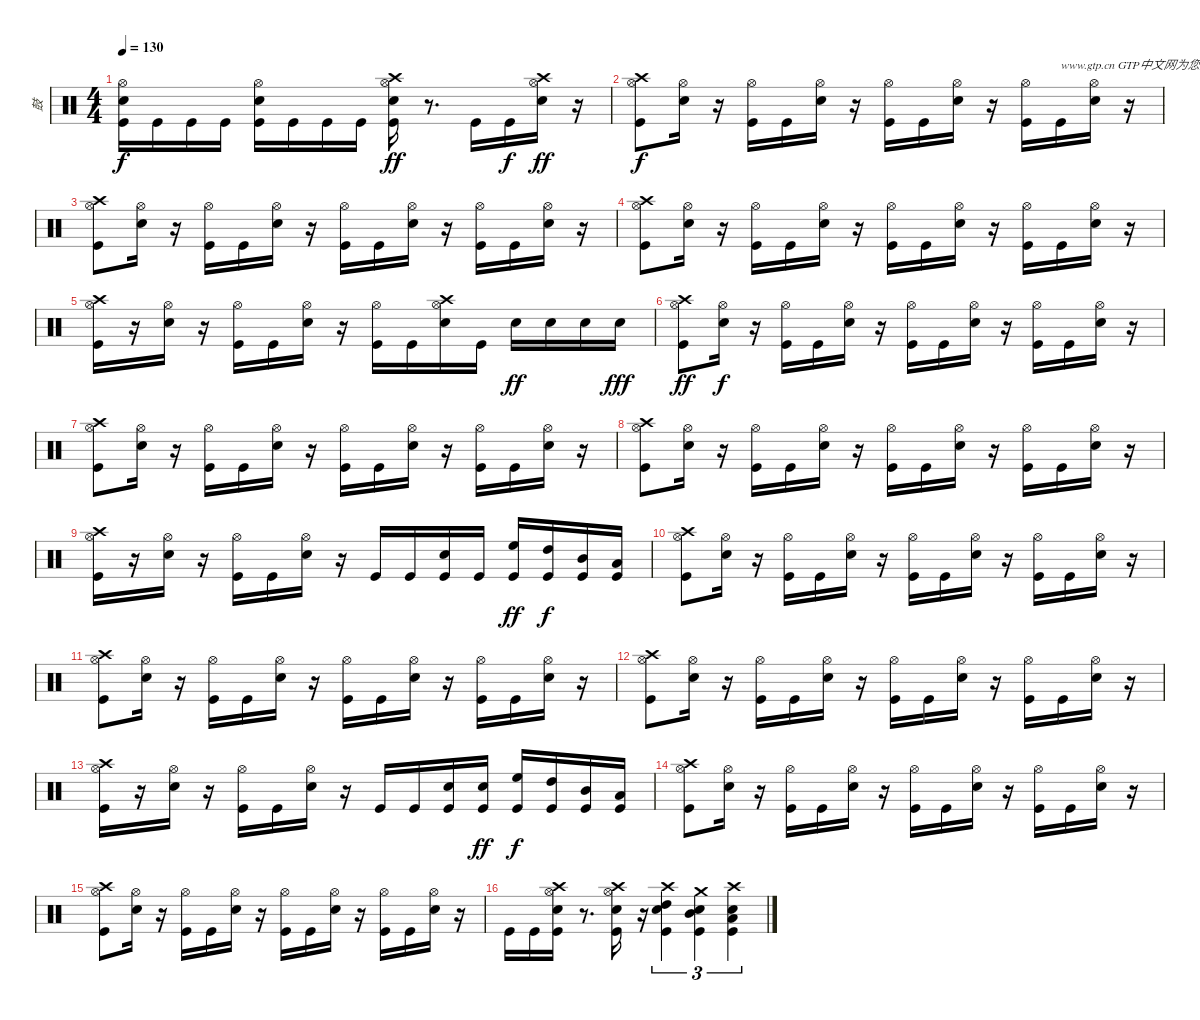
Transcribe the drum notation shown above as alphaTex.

\track ("鼓" "鼓") {instrument percussion}
\staff {score}
\articulation defaults
\ts (4 4)
\tempo 130
\clef neutral
\ks c
("Hi-Hat (open)" "Snare (hit) 2" "Kick (hit)").16{dy f} "Kick (hit)".16 "Kick (hit)".16 "Kick (hit)".16 ("Hi-Hat (open)" "Snare (hit) 2" "Kick (hit)").16 "Kick (hit)".16 "Kick (hit)".16 "Kick (hit)".16 ("Crash high (hit)" "Hi-Hat (open)" "Snare (hit) 2" "Kick (hit)").16{dy ff} r.8{d} "Kick (hit)".16 "Kick (hit)".16{dy f} ("Crash high (hit)" "Hi-Hat (open)" "Snare (hit) 2").16{dy ff} r.16 |
("Crash high (hit)" "Hi-Hat (open)" "Kick (hit)").8{dy f} ("Hi-Hat (open)" "Snare (hit) 2").16 r.16 ("Hi-Hat (open)" "Kick (hit)").16 "Kick (hit)".16 ("Hi-Hat (open)" "Snare (hit) 2").16 r.16 ("Hi-Hat (open)" "Kick (hit)").16 "Kick (hit)".16 ("Hi-Hat (open)" "Snare (hit) 2").16 r.16 ("Hi-Hat (open)" "Kick (hit)").16 "Kick (hit)".16{txt "www.gtp.cn GTP中文网为您提供优秀的谱子"} ("Hi-Hat (open)" "Snare (hit) 2").16 r.16 |
("Crash high (hit)" "Hi-Hat (open)" "Kick (hit)").8 ("Hi-Hat (open)" "Snare (hit) 2").16 r.16 ("Hi-Hat (open)" "Kick (hit)").16 "Kick (hit)".16 ("Hi-Hat (open)" "Snare (hit) 2").16 r.16 ("Hi-Hat (open)" "Kick (hit)").16 "Kick (hit)".16 ("Hi-Hat (open)" "Snare (hit) 2").16 r.16 ("Hi-Hat (open)" "Kick (hit)").16 "Kick (hit)".16 ("Hi-Hat (open)" "Snare (hit) 2").16 r.16 |
("Hi-Hat (open)" "Crash high (hit)" "Kick (hit)").8 ("Hi-Hat (open)" "Snare (hit) 2").16 r.16 ("Hi-Hat (open)" "Kick (hit)").16 "Kick (hit)".16 ("Hi-Hat (open)" "Snare (hit) 2").16 r.16 ("Hi-Hat (open)" "Kick (hit)").16 "Kick (hit)".16 ("Hi-Hat (open)" "Snare (hit) 2").16 r.16 ("Hi-Hat (open)" "Kick (hit)").16 "Kick (hit)".16 ("Hi-Hat (open)" "Snare (hit) 2").16 r.16 |
("Crash high (hit)" "Hi-Hat (open)" "Kick (hit)").16 r.16 ("Hi-Hat (open)" "Snare (hit) 2").16 r.16 ("Hi-Hat (open)" "Kick (hit)").16 "Kick (hit)".16 ("Hi-Hat (open)" "Snare (hit) 2").16 r.16 ("Hi-Hat (open)" "Kick (hit)").16 "Kick (hit)".16 ("Crash high (hit)" "Hi-Hat (open)" "Snare (hit) 2").16 "Kick (hit)".16 "Snare (hit) 2".16{dy ff} "Snare (hit) 2".16 "Snare (hit) 2".16 "Snare (hit) 2".16{dy fff} |
("Hi-Hat (open)" "Crash high (hit)" "Kick (hit)").8{dy ff} ("Hi-Hat (open)" "Snare (hit) 2").16{dy f} r.16 ("Hi-Hat (open)" "Kick (hit)").16 "Kick (hit)".16 ("Hi-Hat (open)" "Snare (hit) 2").16 r.16 ("Hi-Hat (open)" "Kick (hit)").16 "Kick (hit)".16 ("Hi-Hat (open)" "Snare (hit) 2").16 r.16 ("Hi-Hat (open)" "Kick (hit)").16 "Kick (hit)".16 ("Hi-Hat (open)" "Snare (hit) 2").16 r.16 |
("Hi-Hat (open)" "Crash high (hit)" "Kick (hit)").8 ("Hi-Hat (open)" "Snare (hit) 2").16 r.16 ("Hi-Hat (open)" "Kick (hit)").16 "Kick (hit)".16 ("Hi-Hat (open)" "Snare (hit) 2").16 r.16 ("Hi-Hat (open)" "Kick (hit)").16 "Kick (hit)".16 ("Hi-Hat (open)" "Snare (hit) 2").16 r.16 ("Hi-Hat (open)" "Kick (hit)").16 "Kick (hit)".16 ("Hi-Hat (open)" "Snare (hit) 2").16 r.16 |
("Hi-Hat (open)" "Crash high (hit)" "Kick (hit)").8 ("Hi-Hat (open)" "Snare (hit) 2").16 r.16 ("Hi-Hat (open)" "Kick (hit)").16 "Kick (hit)".16 ("Hi-Hat (open)" "Snare (hit) 2").16 r.16 ("Hi-Hat (open)" "Kick (hit)").16 "Kick (hit)".16 ("Hi-Hat (open)" "Snare (hit) 2").16 r.16 ("Hi-Hat (open)" "Kick (hit)").16 "Kick (hit)".16 ("Hi-Hat (open)" "Snare (hit) 2").16 r.16 |
("Hi-Hat (open)" "Crash high (hit)" "Kick (hit)").16 r.16 ("Hi-Hat (open)" "Snare (hit) 2").16 r.16 ("Hi-Hat (open)" "Kick (hit)").16 "Kick (hit)".16 ("Hi-Hat (open)" "Snare (hit) 2").16 r.16 "Kick (hit)".16 "Kick (hit)".16 ("Kick (hit)" "Snare (hit) 2").16 "Kick (hit)".16 ("High Floor Tom (hit)" "Kick (hit)").16{dy ff} ("High Tom (hit)" "Kick (hit)").16{dy f} ("Kick (hit)" "Mid Tom (hit)").16 ("Low Tom (hit)" "Kick (hit)").16 |
("Hi-Hat (open)" "Crash high (hit)" "Kick (hit)").8 ("Hi-Hat (open)" "Snare (hit) 2").16 r.16 ("Hi-Hat (open)" "Kick (hit)").16 "Kick (hit)".16 ("Hi-Hat (open)" "Snare (hit) 2").16 r.16 ("Hi-Hat (open)" "Kick (hit)").16 "Kick (hit)".16 ("Hi-Hat (open)" "Snare (hit) 2").16 r.16 ("Hi-Hat (open)" "Kick (hit)").16 "Kick (hit)".16 ("Hi-Hat (open)" "Snare (hit) 2").16 r.16 |
("Hi-Hat (open)" "Crash high (hit)" "Kick (hit)").8 ("Hi-Hat (open)" "Snare (hit) 2").16 r.16 ("Hi-Hat (open)" "Kick (hit)").16 "Kick (hit)".16 ("Hi-Hat (open)" "Snare (hit) 2").16 r.16 ("Hi-Hat (open)" "Kick (hit)").16 "Kick (hit)".16 ("Hi-Hat (open)" "Snare (hit) 2").16 r.16 ("Hi-Hat (open)" "Kick (hit)").16 "Kick (hit)".16 ("Hi-Hat (open)" "Snare (hit) 2").16 r.16 |
("Hi-Hat (open)" "Crash high (hit)" "Kick (hit)").8 ("Hi-Hat (open)" "Snare (hit) 2").16 r.16 ("Hi-Hat (open)" "Kick (hit)").16 "Kick (hit)".16 ("Hi-Hat (open)" "Snare (hit) 2").16 r.16 ("Hi-Hat (open)" "Kick (hit)").16 "Kick (hit)".16 ("Hi-Hat (open)" "Snare (hit) 2").16 r.16 ("Hi-Hat (open)" "Kick (hit)").16 "Kick (hit)".16 ("Hi-Hat (open)" "Snare (hit) 2").16 r.16 |
("Hi-Hat (open)" "Crash high (hit)" "Kick (hit)").16 r.16 ("Hi-Hat (open)" "Snare (hit) 2").16 r.16 ("Hi-Hat (open)" "Kick (hit)").16 "Kick (hit)".16 ("Hi-Hat (open)" "Snare (hit) 2").16 r.16 "Kick (hit)".16 "Kick (hit)".16 ("Snare (hit) 2" "Kick (hit)").16 ("Snare (hit) 2" "Kick (hit)").16{dy ff} ("Kick (hit)" "High Floor Tom (hit)").16{dy f} ("Kick (hit)" "High Tom (hit)").16 ("Mid Tom (hit)" "Kick (hit)").16 ("Kick (hit)" "Low Tom (hit)").16 |
("Hi-Hat (open)" "Crash high (hit)" "Kick (hit)").8 ("Hi-Hat (open)" "Snare (hit) 2").16 r.16 ("Hi-Hat (open)" "Kick (hit)").16 "Kick (hit)".16 ("Hi-Hat (open)" "Snare (hit) 2").16 r.16 ("Hi-Hat (open)" "Kick (hit)").16 "Kick (hit)".16 ("Hi-Hat (open)" "Snare (hit) 2").16 r.16 ("Hi-Hat (open)" "Kick (hit)").16 "Kick (hit)".16 ("Hi-Hat (open)" "Snare (hit) 2").16 r.16 |
("Hi-Hat (open)" "Crash high (hit)" "Kick (hit)").8 ("Hi-Hat (open)" "Snare (hit) 2").16 r.16 ("Hi-Hat (open)" "Kick (hit)").16 "Kick (hit)".16 ("Hi-Hat (open)" "Snare (hit) 2").16 r.16 ("Hi-Hat (open)" "Kick (hit)").16 "Kick (hit)".16 ("Hi-Hat (open)" "Snare (hit) 2").16 r.16 ("Hi-Hat (open)" "Kick (hit)").16 "Kick (hit)".16 ("Hi-Hat (open)" "Snare (hit) 2").16 r.16 |
"Kick (hit)".16 "Kick (hit)".16 ("Crash high (hit)" "Hi-Hat (open)" "Snare (hit) 2" "Kick (hit)").16 r.8{d} ("Crash high (hit)" "Hi-Hat (open)" "Snare (hit) 2" "Kick (hit)").16 r.16 ("Crash high (hit)" "High Tom (hit)" "Snare (hit) 2" "Kick (hit)").4{tu (3 2)} ("Crash medium (hit)" "Mid Tom (hit)" "Snare (hit) 2" "Kick (hit)").4{tu (3 2)} ("Crash high (hit)" "Low Tom (hit)" "Snare (hit) 2" "Kick (hit)").4{tu (3 2)}
